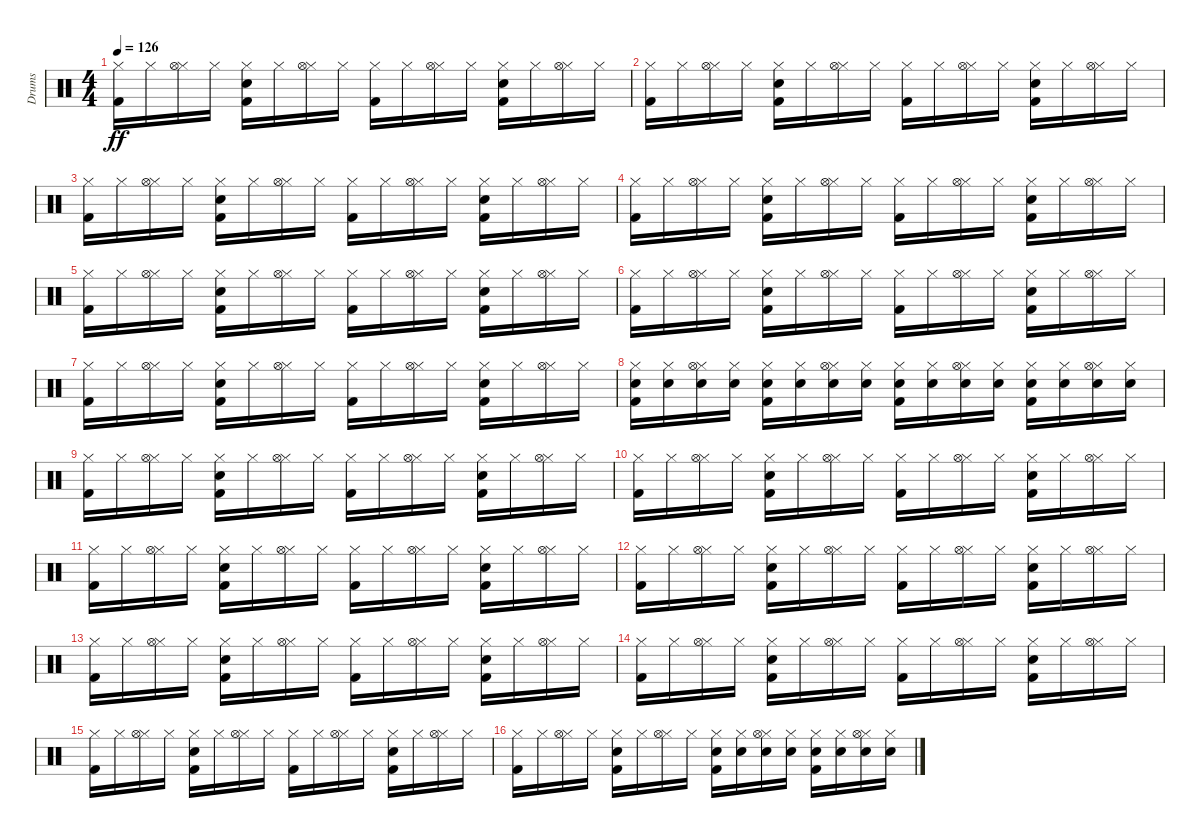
\track ("Drums" "Drums") {instrument percussion}
\staff {score}
\articulation defaults
\ts (4 4)
\tempo 126
\clef neutral
\ks c
("Kick (hit) 2" "Hi-Hat (closed)").16{dy ff} "Hi-Hat (closed)".16 ("Hi-Hat (closed)" "Hi-Hat (open)").16 "Hi-Hat (closed)".16 ("Kick (hit) 2" "Electric Snare (hit)" "Hi-Hat (closed)").16 "Hi-Hat (closed)".16 ("Hi-Hat (closed)" "Hi-Hat (open)").16 "Hi-Hat (closed)".16 ("Kick (hit) 2" "Hi-Hat (closed)").16 "Hi-Hat (closed)".16 ("Hi-Hat (closed)" "Hi-Hat (open)").16 "Hi-Hat (closed)".16 ("Kick (hit) 2" "Electric Snare (hit)" "Hi-Hat (closed)").16 "Hi-Hat (closed)".16 ("Hi-Hat (closed)" "Hi-Hat (open)").16 "Hi-Hat (closed)".16 |
("Kick (hit) 2" "Hi-Hat (closed)").16 "Hi-Hat (closed)".16 ("Hi-Hat (closed)" "Hi-Hat (open)").16 "Hi-Hat (closed)".16 ("Kick (hit) 2" "Electric Snare (hit)" "Hi-Hat (closed)").16 "Hi-Hat (closed)".16 ("Hi-Hat (closed)" "Hi-Hat (open)").16 "Hi-Hat (closed)".16 ("Kick (hit) 2" "Hi-Hat (closed)").16 "Hi-Hat (closed)".16 ("Hi-Hat (closed)" "Hi-Hat (open)").16 "Hi-Hat (closed)".16 ("Kick (hit) 2" "Electric Snare (hit)" "Hi-Hat (closed)").16 "Hi-Hat (closed)".16 ("Hi-Hat (closed)" "Hi-Hat (open)").16 "Hi-Hat (closed)".16 |
("Kick (hit) 2" "Hi-Hat (closed)").16 "Hi-Hat (closed)".16 ("Hi-Hat (closed)" "Hi-Hat (open)").16 "Hi-Hat (closed)".16 ("Kick (hit) 2" "Electric Snare (hit)" "Hi-Hat (closed)").16 "Hi-Hat (closed)".16 ("Hi-Hat (closed)" "Hi-Hat (open)").16 "Hi-Hat (closed)".16 ("Kick (hit) 2" "Hi-Hat (closed)").16 "Hi-Hat (closed)".16 ("Hi-Hat (closed)" "Hi-Hat (open)").16 "Hi-Hat (closed)".16 ("Kick (hit) 2" "Electric Snare (hit)" "Hi-Hat (closed)").16 "Hi-Hat (closed)".16 ("Hi-Hat (closed)" "Hi-Hat (open)").16 "Hi-Hat (closed)".16 |
("Kick (hit) 2" "Hi-Hat (closed)").16 "Hi-Hat (closed)".16 ("Hi-Hat (closed)" "Hi-Hat (open)").16 "Hi-Hat (closed)".16 ("Kick (hit) 2" "Electric Snare (hit)" "Hi-Hat (closed)").16 "Hi-Hat (closed)".16 ("Hi-Hat (closed)" "Hi-Hat (open)").16 "Hi-Hat (closed)".16 ("Kick (hit) 2" "Hi-Hat (closed)").16 "Hi-Hat (closed)".16 ("Hi-Hat (closed)" "Hi-Hat (open)").16 "Hi-Hat (closed)".16 ("Kick (hit) 2" "Electric Snare (hit)" "Hi-Hat (closed)").16 "Hi-Hat (closed)".16 ("Hi-Hat (closed)" "Hi-Hat (open)").16 "Hi-Hat (closed)".16 |
("Kick (hit) 2" "Hi-Hat (closed)").16 "Hi-Hat (closed)".16 ("Hi-Hat (closed)" "Hi-Hat (open)").16 "Hi-Hat (closed)".16 ("Kick (hit) 2" "Electric Snare (hit)" "Hi-Hat (closed)").16 "Hi-Hat (closed)".16 ("Hi-Hat (closed)" "Hi-Hat (open)").16 "Hi-Hat (closed)".16 ("Kick (hit) 2" "Hi-Hat (closed)").16 "Hi-Hat (closed)".16 ("Hi-Hat (closed)" "Hi-Hat (open)").16 "Hi-Hat (closed)".16 ("Kick (hit) 2" "Electric Snare (hit)" "Hi-Hat (closed)").16 "Hi-Hat (closed)".16 ("Hi-Hat (closed)" "Hi-Hat (open)").16 "Hi-Hat (closed)".16 |
("Kick (hit) 2" "Hi-Hat (closed)").16 "Hi-Hat (closed)".16 ("Hi-Hat (closed)" "Hi-Hat (open)").16 "Hi-Hat (closed)".16 ("Kick (hit) 2" "Electric Snare (hit)" "Hi-Hat (closed)").16 "Hi-Hat (closed)".16 ("Hi-Hat (closed)" "Hi-Hat (open)").16 "Hi-Hat (closed)".16 ("Kick (hit) 2" "Hi-Hat (closed)").16 "Hi-Hat (closed)".16 ("Hi-Hat (closed)" "Hi-Hat (open)").16 "Hi-Hat (closed)".16 ("Kick (hit) 2" "Electric Snare (hit)" "Hi-Hat (closed)").16 "Hi-Hat (closed)".16 ("Hi-Hat (closed)" "Hi-Hat (open)").16 "Hi-Hat (closed)".16 |
("Kick (hit) 2" "Hi-Hat (closed)").16 "Hi-Hat (closed)".16 ("Hi-Hat (closed)" "Hi-Hat (open)").16 "Hi-Hat (closed)".16 ("Kick (hit) 2" "Electric Snare (hit)" "Hi-Hat (closed)").16 "Hi-Hat (closed)".16 ("Hi-Hat (closed)" "Hi-Hat (open)").16 "Hi-Hat (closed)".16 ("Kick (hit) 2" "Hi-Hat (closed)").16 "Hi-Hat (closed)".16 ("Hi-Hat (closed)" "Hi-Hat (open)").16 "Hi-Hat (closed)".16 ("Kick (hit) 2" "Electric Snare (hit)" "Hi-Hat (closed)").16 "Hi-Hat (closed)".16 ("Hi-Hat (closed)" "Hi-Hat (open)").16 "Hi-Hat (closed)".16 |
("Kick (hit) 2" "Electric Snare (hit)" "Hi-Hat (closed)").16 ("Electric Snare (hit)" "Hi-Hat (closed)").16 ("Electric Snare (hit)" "Hi-Hat (closed)" "Hi-Hat (open)").16 ("Electric Snare (hit)" "Hi-Hat (closed)").16 ("Kick (hit) 2" "Electric Snare (hit)" "Hi-Hat (closed)").16 ("Electric Snare (hit)" "Hi-Hat (closed)").16 ("Electric Snare (hit)" "Hi-Hat (closed)" "Hi-Hat (open)").16 ("Electric Snare (hit)" "Hi-Hat (closed)").16 ("Kick (hit) 2" "Electric Snare (hit)" "Hi-Hat (closed)").16 ("Electric Snare (hit)" "Hi-Hat (closed)").16 ("Electric Snare (hit)" "Hi-Hat (closed)" "Hi-Hat (open)").16 ("Electric Snare (hit)" "Hi-Hat (closed)").16 ("Kick (hit) 2" "Electric Snare (hit)" "Hi-Hat (closed)").16 ("Electric Snare (hit)" "Hi-Hat (closed)").16 ("Electric Snare (hit)" "Hi-Hat (closed)" "Hi-Hat (open)").16 ("Electric Snare (hit)" "Hi-Hat (closed)").16 |
("Kick (hit) 2" "Hi-Hat (closed)").16 "Hi-Hat (closed)".16 ("Hi-Hat (closed)" "Hi-Hat (open)").16 "Hi-Hat (closed)".16 ("Kick (hit) 2" "Electric Snare (hit)" "Hi-Hat (closed)").16 "Hi-Hat (closed)".16 ("Hi-Hat (closed)" "Hi-Hat (open)").16 "Hi-Hat (closed)".16 ("Kick (hit) 2" "Hi-Hat (closed)").16 "Hi-Hat (closed)".16 ("Hi-Hat (closed)" "Hi-Hat (open)").16 "Hi-Hat (closed)".16 ("Kick (hit) 2" "Electric Snare (hit)" "Hi-Hat (closed)").16 "Hi-Hat (closed)".16 ("Hi-Hat (closed)" "Hi-Hat (open)").16 "Hi-Hat (closed)".16 |
("Kick (hit) 2" "Hi-Hat (closed)").16 "Hi-Hat (closed)".16 ("Hi-Hat (closed)" "Hi-Hat (open)").16 "Hi-Hat (closed)".16 ("Kick (hit) 2" "Electric Snare (hit)" "Hi-Hat (closed)").16 "Hi-Hat (closed)".16 ("Hi-Hat (closed)" "Hi-Hat (open)").16 "Hi-Hat (closed)".16 ("Kick (hit) 2" "Hi-Hat (closed)").16 "Hi-Hat (closed)".16 ("Hi-Hat (closed)" "Hi-Hat (open)").16 "Hi-Hat (closed)".16 ("Kick (hit) 2" "Electric Snare (hit)" "Hi-Hat (closed)").16 "Hi-Hat (closed)".16 ("Hi-Hat (closed)" "Hi-Hat (open)").16 "Hi-Hat (closed)".16 |
("Kick (hit) 2" "Hi-Hat (closed)").16 "Hi-Hat (closed)".16 ("Hi-Hat (closed)" "Hi-Hat (open)").16 "Hi-Hat (closed)".16 ("Kick (hit) 2" "Electric Snare (hit)" "Hi-Hat (closed)").16 "Hi-Hat (closed)".16 ("Hi-Hat (closed)" "Hi-Hat (open)").16 "Hi-Hat (closed)".16 ("Kick (hit) 2" "Hi-Hat (closed)").16 "Hi-Hat (closed)".16 ("Hi-Hat (closed)" "Hi-Hat (open)").16 "Hi-Hat (closed)".16 ("Kick (hit) 2" "Electric Snare (hit)" "Hi-Hat (closed)").16 "Hi-Hat (closed)".16 ("Hi-Hat (closed)" "Hi-Hat (open)").16 "Hi-Hat (closed)".16 |
("Kick (hit) 2" "Hi-Hat (closed)").16 "Hi-Hat (closed)".16 ("Hi-Hat (closed)" "Hi-Hat (open)").16 "Hi-Hat (closed)".16 ("Kick (hit) 2" "Electric Snare (hit)" "Hi-Hat (closed)").16 "Hi-Hat (closed)".16 ("Hi-Hat (closed)" "Hi-Hat (open)").16 "Hi-Hat (closed)".16 ("Kick (hit) 2" "Hi-Hat (closed)").16 "Hi-Hat (closed)".16 ("Hi-Hat (closed)" "Hi-Hat (open)").16 "Hi-Hat (closed)".16 ("Kick (hit) 2" "Electric Snare (hit)" "Hi-Hat (closed)").16 "Hi-Hat (closed)".16 ("Hi-Hat (closed)" "Hi-Hat (open)").16 "Hi-Hat (closed)".16 |
("Kick (hit) 2" "Hi-Hat (closed)").16 "Hi-Hat (closed)".16 ("Hi-Hat (closed)" "Hi-Hat (open)").16 "Hi-Hat (closed)".16 ("Kick (hit) 2" "Electric Snare (hit)" "Hi-Hat (closed)").16 "Hi-Hat (closed)".16 ("Hi-Hat (closed)" "Hi-Hat (open)").16 "Hi-Hat (closed)".16 ("Kick (hit) 2" "Hi-Hat (closed)").16 "Hi-Hat (closed)".16 ("Hi-Hat (closed)" "Hi-Hat (open)").16 "Hi-Hat (closed)".16 ("Kick (hit) 2" "Electric Snare (hit)" "Hi-Hat (closed)").16 "Hi-Hat (closed)".16 ("Hi-Hat (closed)" "Hi-Hat (open)").16 "Hi-Hat (closed)".16 |
("Kick (hit) 2" "Hi-Hat (closed)").16 "Hi-Hat (closed)".16 ("Hi-Hat (closed)" "Hi-Hat (open)").16 "Hi-Hat (closed)".16 ("Kick (hit) 2" "Electric Snare (hit)" "Hi-Hat (closed)").16 "Hi-Hat (closed)".16 ("Hi-Hat (closed)" "Hi-Hat (open)").16 "Hi-Hat (closed)".16 ("Kick (hit) 2" "Hi-Hat (closed)").16 "Hi-Hat (closed)".16 ("Hi-Hat (closed)" "Hi-Hat (open)").16 "Hi-Hat (closed)".16 ("Kick (hit) 2" "Electric Snare (hit)" "Hi-Hat (closed)").16 "Hi-Hat (closed)".16 ("Hi-Hat (closed)" "Hi-Hat (open)").16 "Hi-Hat (closed)".16 |
("Kick (hit) 2" "Hi-Hat (closed)").16 "Hi-Hat (closed)".16 ("Hi-Hat (closed)" "Hi-Hat (open)").16 "Hi-Hat (closed)".16 ("Kick (hit) 2" "Electric Snare (hit)" "Hi-Hat (closed)").16 "Hi-Hat (closed)".16 ("Hi-Hat (closed)" "Hi-Hat (open)").16 "Hi-Hat (closed)".16 ("Kick (hit) 2" "Hi-Hat (closed)").16 "Hi-Hat (closed)".16 ("Hi-Hat (closed)" "Hi-Hat (open)").16 "Hi-Hat (closed)".16 ("Kick (hit) 2" "Electric Snare (hit)" "Hi-Hat (closed)").16 "Hi-Hat (closed)".16 ("Hi-Hat (closed)" "Hi-Hat (open)").16 "Hi-Hat (closed)".16 |
("Kick (hit) 2" "Hi-Hat (closed)").16 "Hi-Hat (closed)".16 ("Hi-Hat (closed)" "Hi-Hat (open)").16 "Hi-Hat (closed)".16 ("Kick (hit) 2" "Electric Snare (hit)" "Hi-Hat (closed)").16 "Hi-Hat (closed)".16 ("Hi-Hat (closed)" "Hi-Hat (open)").16 "Hi-Hat (closed)".16 ("Kick (hit) 2" "Electric Snare (hit)" "Hi-Hat (closed)").16 ("Electric Snare (hit)" "Hi-Hat (closed)").16 ("Electric Snare (hit)" "Hi-Hat (closed)" "Hi-Hat (open)").16 ("Electric Snare (hit)" "Hi-Hat (closed)").16 ("Kick (hit) 2" "Electric Snare (hit)" "Hi-Hat (closed)").16 ("Electric Snare (hit)" "Hi-Hat (closed)").16 ("Electric Snare (hit)" "Hi-Hat (closed)" "Hi-Hat (open)").16 ("Electric Snare (hit)" "Hi-Hat (closed)").16
